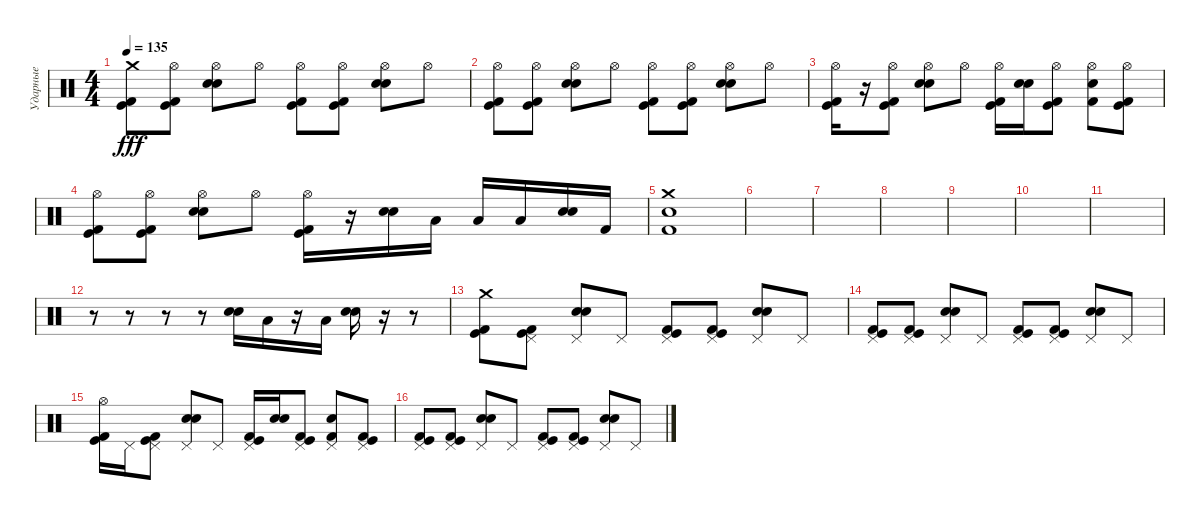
\track ("Ударные" "Ударные") {instrument percussion}
\staff {score}
\articulation defaults
\ts (4 4)
\tempo 135
\clef neutral
\ks c
("Crash medium (hit)" "Kick (hit)" "Kick (hit) 2").8{dy fff} ("Hi-Hat (open)" "Kick (hit)" "Kick (hit) 2").8 ("Hi-Hat (open)" "Snare (hit) 2" "Electric Snare (hit)").8 "Hi-Hat (open)".8 ("Hi-Hat (open)" "Kick (hit)" "Kick (hit) 2").8 ("Hi-Hat (open)" "Kick (hit)" "Kick (hit) 2").8 ("Hi-Hat (open)" "Snare (hit) 2" "Electric Snare (hit)").8 "Hi-Hat (open)".8 |
("Hi-Hat (open)" "Kick (hit)" "Kick (hit) 2").8 ("Hi-Hat (open)" "Kick (hit)" "Kick (hit) 2").8 ("Hi-Hat (open)" "Snare (hit) 2" "Electric Snare (hit)").8 "Hi-Hat (open)".8 ("Hi-Hat (open)" "Kick (hit)" "Kick (hit) 2").8 ("Hi-Hat (open)" "Kick (hit)" "Kick (hit) 2").8 ("Hi-Hat (open)" "Snare (hit) 2" "Electric Snare (hit)").8 "Hi-Hat (open)".8 |
("Hi-Hat (open)" "Kick (hit)" "Kick (hit) 2").16 r.16 ("Hi-Hat (open)" "Kick (hit)" "Kick (hit) 2").8 ("Hi-Hat (open)" "Snare (hit) 2" "Electric Snare (hit)").8 "Hi-Hat (open)".8 ("Hi-Hat (open)" "Kick (hit)" "Kick (hit) 2").16 ("Snare (hit) 2" "Electric Snare (hit)").16 ("Hi-Hat (open)" "Kick (hit)" "Kick (hit) 2").8 ("Hi-Hat (open)" "Kick (hit) 2" "Electric Snare (hit)").8 ("Hi-Hat (open)" "Kick (hit)" "Kick (hit) 2").8 |
("Hi-Hat (open)" "Kick (hit)" "Kick (hit) 2").8 ("Hi-Hat (open)" "Kick (hit)" "Kick (hit) 2").8 ("Hi-Hat (open)" "Snare (hit) 2" "Electric Snare (hit)").8 "Hi-Hat (open)".8 ("Hi-Hat (open)" "Kick (hit)" "Kick (hit) 2").16 r.16 ("Electric Snare (hit)" "Snare (hit) 2").16 "Low Floor Tom (hit)".16 "Low Floor Tom (hit)".16 "Low Floor Tom (hit)".16 ("Snare (hit) 2" "Electric Snare (hit)").16 "Kick (hit) 2".16 |
("Crash medium (hit)" "Electric Snare (hit)" "Kick (hit) 2").1 |
|
|
|
|
|
|
r.8 r.8 r.8 r.8 ("Electric Snare (hit)" "Snare (hit) 2").16 "Low Floor Tom (hit)".16 r.16 "Low Floor Tom (hit)".16 ("Snare (hit) 2" "Electric Snare (hit)").16 r.16 r.8 |
("Crash medium (hit)" "Kick (hit)" "Kick (hit) 2").8 ("Pedal Hi-Hat (hit)" "Kick (hit)" "Kick (hit) 2").8 ("Pedal Hi-Hat (hit)" "Snare (hit) 2" "Electric Snare (hit)").8 "Pedal Hi-Hat (hit)".8 ("Pedal Hi-Hat (hit)" "Kick (hit)" "Kick (hit) 2").8 ("Pedal Hi-Hat (hit)" "Kick (hit)" "Kick (hit) 2").8 ("Pedal Hi-Hat (hit)" "Snare (hit) 2" "Electric Snare (hit)").8 "Pedal Hi-Hat (hit)".8 |
("Pedal Hi-Hat (hit)" "Kick (hit)" "Kick (hit) 2").8 ("Pedal Hi-Hat (hit)" "Kick (hit)" "Kick (hit) 2").8 ("Pedal Hi-Hat (hit)" "Snare (hit) 2" "Electric Snare (hit)").8 "Pedal Hi-Hat (hit)".8 ("Pedal Hi-Hat (hit)" "Kick (hit)" "Kick (hit) 2").8 ("Pedal Hi-Hat (hit)" "Kick (hit)" "Kick (hit) 2").8 ("Pedal Hi-Hat (hit)" "Snare (hit) 2" "Electric Snare (hit)").8 "Pedal Hi-Hat (hit)".8 |
("Hi-Hat (open)" "Kick (hit)" "Kick (hit) 2").16 "Pedal Hi-Hat (hit)".16 ("Pedal Hi-Hat (hit)" "Kick (hit)" "Kick (hit) 2").8 ("Pedal Hi-Hat (hit)" "Snare (hit) 2" "Electric Snare (hit)").8 "Pedal Hi-Hat (hit)".8 ("Pedal Hi-Hat (hit)" "Kick (hit)" "Kick (hit) 2").16 ("Snare (hit) 2" "Electric Snare (hit)").16 ("Pedal Hi-Hat (hit)" "Kick (hit)" "Kick (hit) 2").8 ("Pedal Hi-Hat (hit)" "Kick (hit) 2" "Electric Snare (hit)").8 ("Pedal Hi-Hat (hit)" "Kick (hit)" "Kick (hit) 2").8 |
("Pedal Hi-Hat (hit)" "Kick (hit)" "Kick (hit) 2").8 ("Pedal Hi-Hat (hit)" "Kick (hit)" "Kick (hit) 2").8 ("Pedal Hi-Hat (hit)" "Snare (hit) 2" "Electric Snare (hit)").8 "Pedal Hi-Hat (hit)".8 ("Pedal Hi-Hat (hit)" "Kick (hit)" "Kick (hit) 2").8 ("Pedal Hi-Hat (hit)" "Kick (hit)" "Kick (hit) 2").8 ("Pedal Hi-Hat (hit)" "Snare (hit) 2" "Electric Snare (hit)").8 "Pedal Hi-Hat (hit)".8
